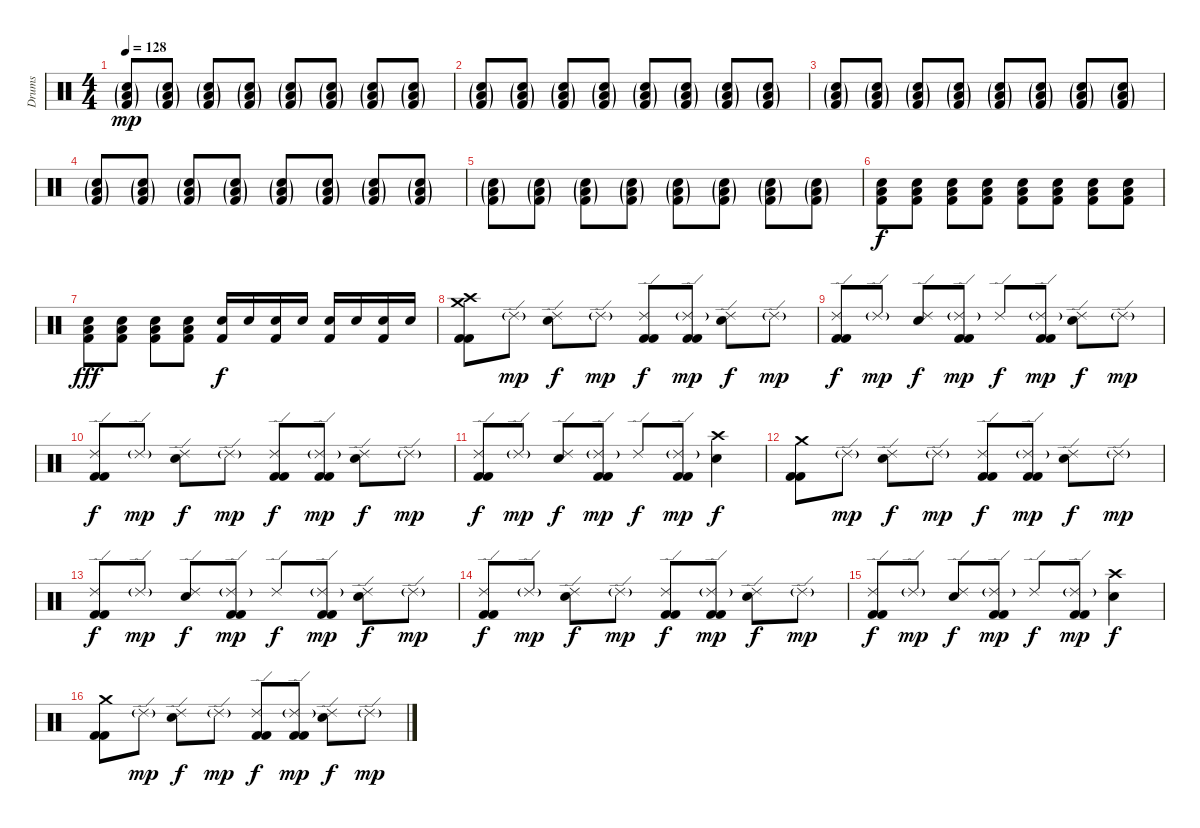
\track ("Drums" "Drums") {instrument percussion}
\staff {score}
\articulation defaults
\ts (4 4)
\tempo 128
\clef neutral
\ks c
("Snare (hit) 2"{g} "Low Floor Tom (hit)"{g} "Kick (hit) 2"{g}).8{dy mp} ("Snare (hit) 2"{g} "Low Floor Tom (hit)"{g} "Kick (hit) 2"{g}).8 ("Snare (hit) 2"{g} "Low Floor Tom (hit)"{g} "Kick (hit) 2"{g}).8 ("Snare (hit) 2"{g} "Low Floor Tom (hit)"{g} "Kick (hit) 2"{g}).8 ("Snare (hit) 2"{g} "Low Floor Tom (hit)"{g} "Kick (hit) 2"{g}).8 ("Snare (hit) 2"{g} "Low Floor Tom (hit)"{g} "Kick (hit) 2"{g}).8 ("Snare (hit) 2"{g} "Low Floor Tom (hit)"{g} "Kick (hit) 2"{g}).8 ("Snare (hit) 2"{g} "Low Floor Tom (hit)"{g} "Kick (hit) 2"{g}).8 |
("Snare (hit) 2"{g} "Low Floor Tom (hit)"{g} "Kick (hit) 2"{g}).8 ("Snare (hit) 2"{g} "Low Floor Tom (hit)"{g} "Kick (hit) 2"{g}).8 ("Snare (hit) 2"{g} "Low Floor Tom (hit)"{g} "Kick (hit) 2"{g}).8 ("Snare (hit) 2"{g} "Low Floor Tom (hit)"{g} "Kick (hit) 2"{g}).8 ("Snare (hit) 2"{g} "Low Floor Tom (hit)"{g} "Kick (hit) 2"{g}).8 ("Snare (hit) 2"{g} "Low Floor Tom (hit)"{g} "Kick (hit) 2"{g}).8 ("Snare (hit) 2"{g} "Low Floor Tom (hit)"{g} "Kick (hit) 2"{g}).8 ("Snare (hit) 2"{g} "Low Floor Tom (hit)"{g} "Kick (hit) 2"{g}).8 |
("Snare (hit) 2"{g} "Low Floor Tom (hit)"{g} "Kick (hit) 2"{g}).8 ("Snare (hit) 2"{g} "Low Floor Tom (hit)"{g} "Kick (hit) 2"{g}).8 ("Snare (hit) 2"{g} "Low Floor Tom (hit)"{g} "Kick (hit) 2"{g}).8 ("Snare (hit) 2"{g} "Low Floor Tom (hit)"{g} "Kick (hit) 2"{g}).8 ("Snare (hit) 2"{g} "Low Floor Tom (hit)"{g} "Kick (hit) 2"{g}).8 ("Snare (hit) 2"{g} "Low Floor Tom (hit)"{g} "Kick (hit) 2"{g}).8 ("Snare (hit) 2"{g} "Low Floor Tom (hit)"{g} "Kick (hit) 2"{g}).8 ("Snare (hit) 2"{g} "Low Floor Tom (hit)"{g} "Kick (hit) 2"{g}).8 |
("Snare (hit) 2"{g} "Low Floor Tom (hit)"{g} "Kick (hit) 2"{g}).8 ("Snare (hit) 2"{g} "Low Floor Tom (hit)"{g} "Kick (hit) 2"{g}).8 ("Snare (hit) 2"{g} "Low Floor Tom (hit)"{g} "Kick (hit) 2"{g}).8 ("Snare (hit) 2"{g} "Low Floor Tom (hit)"{g} "Kick (hit) 2"{g}).8 ("Snare (hit) 2"{g} "Low Floor Tom (hit)"{g} "Kick (hit) 2"{g}).8 ("Snare (hit) 2"{g} "Low Floor Tom (hit)"{g} "Kick (hit) 2"{g}).8 ("Snare (hit) 2"{g} "Low Floor Tom (hit)"{g} "Kick (hit) 2"{g}).8 ("Snare (hit) 2"{g} "Low Floor Tom (hit)"{g} "Kick (hit) 2"{g}).8 |
("Electric Snare (hit)"{g} "Low Floor Tom (hit)"{g} "Kick (hit) 2"{g}).8 ("Electric Snare (hit)"{g} "Low Floor Tom (hit)"{g} "Kick (hit) 2"{g}).8 ("Electric Snare (hit)"{g} "Low Floor Tom (hit)"{g} "Kick (hit) 2"{g}).8 ("Electric Snare (hit)"{g} "Low Floor Tom (hit)"{g} "Kick (hit) 2"{g}).8 ("Electric Snare (hit)"{g} "Low Floor Tom (hit)"{g} "Kick (hit) 2"{g}).8 ("Electric Snare (hit)"{g} "Low Floor Tom (hit)"{g} "Kick (hit) 2"{g}).8 ("Electric Snare (hit)"{g} "Low Floor Tom (hit)"{g} "Kick (hit) 2"{g}).8 ("Electric Snare (hit)"{g} "Low Floor Tom (hit)"{g} "Kick (hit) 2"{g}).8 |
("Electric Snare (hit)" "Low Floor Tom (hit)" "Kick (hit) 2").8{dy f} ("Electric Snare (hit)" "Low Floor Tom (hit)" "Kick (hit) 2").8 ("Electric Snare (hit)" "Low Floor Tom (hit)" "Kick (hit) 2").8 ("Electric Snare (hit)" "Low Floor Tom (hit)" "Kick (hit) 2").8 ("Electric Snare (hit)" "Low Floor Tom (hit)" "Kick (hit) 2").8 ("Electric Snare (hit)" "Low Floor Tom (hit)" "Kick (hit) 2").8 ("Electric Snare (hit)" "Low Floor Tom (hit)" "Kick (hit) 2").8 ("Electric Snare (hit)" "Low Floor Tom (hit)" "Kick (hit) 2").8 |
("Electric Snare (hit)" "Low Floor Tom (hit)" "Kick (hit) 2").8{dy fff} ("Electric Snare (hit)" "Low Floor Tom (hit)" "Kick (hit) 2").8 ("Electric Snare (hit)" "Low Floor Tom (hit)" "Kick (hit) 2").8 ("Electric Snare (hit)" "Low Floor Tom (hit)" "Kick (hit) 2").8 ("Electric Snare (hit)" "Kick (hit) 2").16{dy f} "Electric Snare (hit)".16 ("Electric Snare (hit)" "Kick (hit) 2").16 "Electric Snare (hit)".16 ("Electric Snare (hit)" "Kick (hit) 2").16 "Electric Snare (hit)".16 ("Electric Snare (hit)" "Kick (hit) 2").16 "Electric Snare (hit)".16 |
("Crash medium (hit)" "Crash high (hit)" "Kick (hit) 2" "Kick (hit) 2").8{volume 16} "Ride (edge) 2"{g}.8{dy mp} ("Ride (edge) 2" "Electric Snare (hit)").8{dy f} "Ride (edge) 2"{g}.8{dy mp} ("Ride (edge) 2" "Kick (hit) 2" "Kick (hit) 2").8{dy f} ("Ride (edge) 2"{g} "Kick (hit) 2" "Kick (hit) 2").8{dy mp} ("Ride (edge) 2" "Electric Snare (hit)").8{dy f} "Ride (edge) 2"{g}.8{dy mp} |
("Ride (edge) 2" "Kick (hit) 2" "Kick (hit) 2").8{dy f} "Ride (edge) 2"{g}.8{dy mp} ("Ride (edge) 2" "Electric Snare (hit)").8{dy f} ("Ride (edge) 2"{g} "Kick (hit) 2" "Kick (hit) 2").8{dy mp} "Ride (edge) 2".8{dy f} ("Ride (edge) 2"{g} "Kick (hit) 2" "Kick (hit) 2").8{dy mp} ("Ride (edge) 2" "Electric Snare (hit)").8{dy f} "Ride (edge) 2"{g}.8{dy mp} |
("Ride (edge) 2" "Kick (hit) 2" "Kick (hit) 2").8{dy f} "Ride (edge) 2"{g}.8{dy mp} ("Ride (edge) 2" "Electric Snare (hit)").8{dy f} "Ride (edge) 2"{g}.8{dy mp} ("Ride (edge) 2" "Kick (hit) 2" "Kick (hit) 2").8{dy f} ("Ride (edge) 2"{g} "Kick (hit) 2" "Kick (hit) 2").8{dy mp} ("Ride (edge) 2" "Electric Snare (hit)").8{dy f} "Ride (edge) 2"{g}.8{dy mp} |
("Ride (edge) 2" "Kick (hit) 2" "Kick (hit) 2").8{dy f} "Ride (edge) 2"{g}.8{dy mp} ("Ride (edge) 2" "Electric Snare (hit)").8{dy f} ("Ride (edge) 2"{g} "Kick (hit) 2" "Kick (hit) 2").8{dy mp} "Ride (edge) 2".8{dy f} ("Ride (edge) 2"{g} "Kick (hit) 2" "Kick (hit) 2").8{dy mp} ("Crash high (hit)" "Electric Snare (hit)").4{dy f} |
("Crash medium (hit)" "Kick (hit) 2" "Kick (hit) 2").8 "Ride (edge) 2"{g}.8{dy mp} ("Ride (edge) 2" "Electric Snare (hit)").8{dy f} "Ride (edge) 2"{g}.8{dy mp} ("Ride (edge) 2" "Kick (hit) 2" "Kick (hit) 2").8{dy f} ("Ride (edge) 2"{g} "Kick (hit) 2" "Kick (hit) 2").8{dy mp} ("Ride (edge) 2" "Electric Snare (hit)").8{dy f} "Ride (edge) 2"{g}.8{dy mp} |
("Ride (edge) 2" "Kick (hit) 2" "Kick (hit) 2").8{dy f} "Ride (edge) 2"{g}.8{dy mp} ("Ride (edge) 2" "Electric Snare (hit)").8{dy f} ("Ride (edge) 2"{g} "Kick (hit) 2" "Kick (hit) 2").8{dy mp} "Ride (edge) 2".8{dy f} ("Ride (edge) 2"{g} "Kick (hit) 2" "Kick (hit) 2").8{dy mp} ("Ride (edge) 2" "Electric Snare (hit)").8{dy f} "Ride (edge) 2"{g}.8{dy mp} |
("Ride (edge) 2" "Kick (hit) 2" "Kick (hit) 2").8{dy f} "Ride (edge) 2"{g}.8{dy mp} ("Ride (edge) 2" "Electric Snare (hit)").8{dy f} "Ride (edge) 2"{g}.8{dy mp} ("Ride (edge) 2" "Kick (hit) 2" "Kick (hit) 2").8{dy f} ("Ride (edge) 2"{g} "Kick (hit) 2" "Kick (hit) 2").8{dy mp} ("Ride (edge) 2" "Electric Snare (hit)").8{dy f} "Ride (edge) 2"{g}.8{dy mp} |
("Ride (edge) 2" "Kick (hit) 2" "Kick (hit) 2").8{dy f} "Ride (edge) 2"{g}.8{dy mp} ("Ride (edge) 2" "Electric Snare (hit)").8{dy f} ("Ride (edge) 2"{g} "Kick (hit) 2" "Kick (hit) 2").8{dy mp} "Ride (edge) 2".8{dy f} ("Ride (edge) 2"{g} "Kick (hit) 2" "Kick (hit) 2").8{dy mp} ("Crash high (hit)" "Electric Snare (hit)").4{dy f} |
("Crash medium (hit)" "Kick (hit) 2" "Kick (hit) 2").8 "Ride (edge) 2"{g}.8{dy mp} ("Ride (edge) 2" "Electric Snare (hit)").8{dy f} "Ride (edge) 2"{g}.8{dy mp} ("Ride (edge) 2" "Kick (hit) 2" "Kick (hit) 2").8{dy f} ("Ride (edge) 2"{g} "Kick (hit) 2" "Kick (hit) 2").8{dy mp} ("Ride (edge) 2" "Electric Snare (hit)").8{dy f} "Ride (edge) 2"{g}.8{dy mp}
